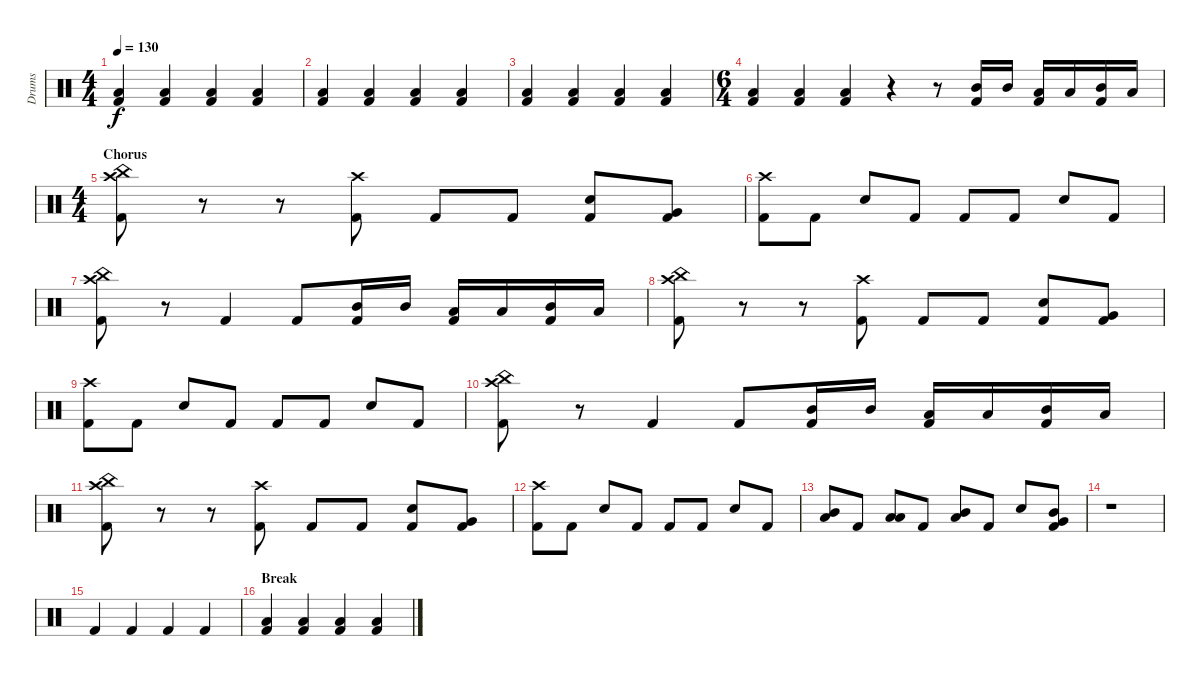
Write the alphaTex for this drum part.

\track ("Drums" "Drums") {instrument percussion}
\staff {score}
\articulation defaults
\ts (4 4)
\tempo 130
\clef neutral
\ks c
("Low Floor Tom (hit)" "Kick (hit) 2").4{dy f} ("Low Floor Tom (hit)" "Kick (hit) 2").4 ("Low Floor Tom (hit)" "Kick (hit) 2").4 ("Low Floor Tom (hit)" "Kick (hit) 2").4 |
("Low Floor Tom (hit)" "Kick (hit) 2").4 ("Low Floor Tom (hit)" "Kick (hit) 2").4 ("Low Floor Tom (hit)" "Kick (hit) 2").4 ("Low Floor Tom (hit)" "Kick (hit) 2").4 |
("Low Floor Tom (hit)" "Kick (hit) 2").4 ("Low Floor Tom (hit)" "Kick (hit) 2").4 ("Low Floor Tom (hit)" "Kick (hit) 2").4 ("Low Floor Tom (hit)" "Kick (hit) 2").4 |
\ts (6 4)
("Low Floor Tom (hit)" "Kick (hit) 2").4 ("Low Floor Tom (hit)" "Kick (hit) 2").4 ("Low Floor Tom (hit)" "Kick (hit) 2").4 r.4 r.8 ("Mid Tom (hit)" "Kick (hit) 2").16 "Mid Tom (hit)".16 ("Low Tom (hit)" "Kick (hit) 2").16 "Low Tom (hit)".16 ("Mid Tom (hit)" "Kick (hit) 2").16 "Low Floor Tom (hit)".16 |
\ts (4 4)
\section ("" "Chorus")
("China (hit)" "Crash high (hit)" "Kick (hit) 2").8 r.8 r.8 ("Crash high (hit)" "Kick (hit) 2").8 "Kick (hit) 2".8 "Kick (hit) 2".8 ("Electric Snare (hit)" "Kick (hit) 2").8 ("Very Low Tom (hit)" "Kick (hit) 2").8 |
("Crash high (hit)" "Kick (hit) 2").8 "Kick (hit) 2".8 "Electric Snare (hit)".8 "Kick (hit) 2".8 "Kick (hit) 2".8 "Kick (hit) 2".8 "Electric Snare (hit)".8 "Kick (hit) 2".8 |
("China (hit)" "Crash high (hit)" "Kick (hit) 2").8 r.8 "Kick (hit) 2".4 "Kick (hit) 2".8 ("Mid Tom (hit)" "Kick (hit) 2").16 "Mid Tom (hit)".16 ("Low Tom (hit)" "Kick (hit) 2").16 "Low Tom (hit)".16 ("Mid Tom (hit)" "Kick (hit) 2").16 "Low Floor Tom (hit)".16 |
("China (hit)" "Crash high (hit)" "Kick (hit) 2").8 r.8 r.8 ("Crash high (hit)" "Kick (hit) 2").8 "Kick (hit) 2".8 "Kick (hit) 2".8 ("Electric Snare (hit)" "Kick (hit) 2").8 ("Very Low Tom (hit)" "Kick (hit) 2").8 |
("Crash high (hit)" "Kick (hit) 2").8 "Kick (hit) 2".8 "Electric Snare (hit)".8 "Kick (hit) 2".8 "Kick (hit) 2".8 "Kick (hit) 2".8 "Electric Snare (hit)".8 "Kick (hit) 2".8 |
("China (hit)" "Crash high (hit)" "Kick (hit) 2").8 r.8 "Kick (hit) 2".4 "Kick (hit) 2".8 ("Mid Tom (hit)" "Kick (hit) 2").16 "Mid Tom (hit)".16 ("Low Tom (hit)" "Kick (hit) 2").16 "Low Tom (hit)".16 ("Mid Tom (hit)" "Kick (hit) 2").16 "Low Floor Tom (hit)".16 |
("China (hit)" "Crash high (hit)" "Kick (hit) 2").8 r.8 r.8 ("Crash high (hit)" "Kick (hit) 2").8 "Kick (hit) 2".8 "Kick (hit) 2".8 ("Electric Snare (hit)" "Kick (hit) 2").8 ("Very Low Tom (hit)" "Kick (hit) 2").8 |
("Crash high (hit)" "Kick (hit) 2").8 "Kick (hit) 2".8 "Electric Snare (hit)".8 "Kick (hit) 2".8 "Kick (hit) 2".8 "Kick (hit) 2".8 "Electric Snare (hit)".8 "Kick (hit) 2".8 |
("Mid Tom (hit)" "Low Tom (hit)").8 "Kick (hit) 2".8 ("Low Tom (hit)" "Low Floor Tom (hit)").8 "Kick (hit) 2".8 ("Mid Tom (hit)" "Low Tom (hit)").8 "Kick (hit) 2".8 "Electric Snare (hit)".8 ("Mid Tom (hit)" "Very Low Tom (hit)" "Kick (hit) 2").8 |
r.1 |
"Kick (hit) 2".4 "Kick (hit) 2".4 "Kick (hit) 2".4 "Kick (hit) 2".4 |
\section ("" "Break")
("Low Floor Tom (hit)" "Kick (hit) 2").4 ("Low Floor Tom (hit)" "Kick (hit) 2").4 ("Low Floor Tom (hit)" "Kick (hit) 2").4 ("Low Floor Tom (hit)" "Kick (hit) 2").4
